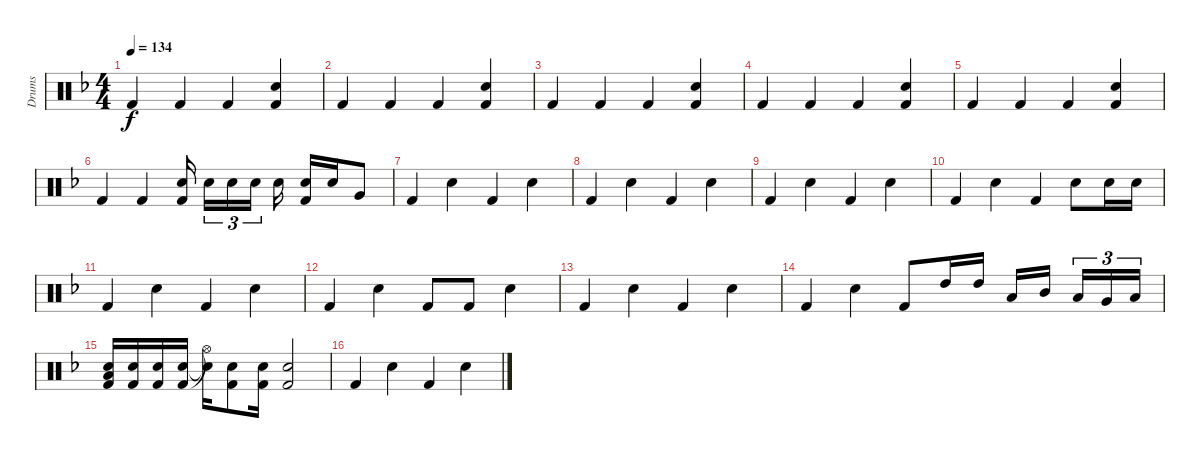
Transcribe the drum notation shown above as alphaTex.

\track ("Drums" "Drums") {instrument percussion}
\staff {score}
\articulation defaults
\ts (4 4)
\tempo 134
\clef neutral
\ks f "Kick (hit) 2".4{dy f} "Kick (hit) 2".4 "Kick (hit) 2".4
("Kick (hit) 2" "Snare (hit) 2").4 |
"Kick (hit) 2".4 "Kick (hit) 2".4 "Kick (hit) 2".4 ("Kick (hit) 2" "Snare (hit) 2").4 |
"Kick (hit) 2".4 "Kick (hit) 2".4 "Kick (hit) 2".4 ("Kick (hit) 2" "Snare (hit) 2").4 |
"Kick (hit) 2".4 "Kick (hit) 2".4 "Kick (hit) 2".4 ("Kick (hit) 2" "Snare (hit) 2").4 |
"Kick (hit) 2".4 "Kick (hit) 2".4 "Kick (hit) 2".4 ("Kick (hit) 2" "Snare (hit) 2").4 |
"Kick (hit) 2".4 "Kick (hit) 2".4 ("Kick (hit) 2" "Snare (hit) 2").16{beam splitsecondary} "Snare (hit) 2".16{tu (3 2)} "Snare (hit) 2".16{tu (3 2)} "Snare (hit) 2".16{tu (3 2) beam splitsecondary} "Snare (hit) 2".16 ("Kick (hit) 2" "Snare (hit) 2").16 "Snare (hit) 2".16 "Very Low Tom (hit)".8 |
"Kick (hit) 2".4 "Snare (hit) 2".4 "Kick (hit) 2".4 "Snare (hit) 2".4 |
"Kick (hit) 2".4 "Snare (hit) 2".4 "Kick (hit) 2".4 "Snare (hit) 2".4 |
"Kick (hit) 2".4 "Snare (hit) 2".4 "Kick (hit) 2".4 "Snare (hit) 2".4 |
"Kick (hit) 2".4 "Snare (hit) 2".4 "Kick (hit) 2".4 "Snare (hit) 2".8 "Snare (hit) 2".16 "Snare (hit) 2".16 |
"Kick (hit) 2".4 "Snare (hit) 2".4 "Kick (hit) 2".4 "Snare (hit) 2".4 |
"Kick (hit) 2".4 "Snare (hit) 2".4 "Kick (hit) 2".8 "Kick (hit) 2".8 "Snare (hit) 2".4 |
"Kick (hit) 2".4 "Snare (hit) 2".4 "Kick (hit) 2".4 "Snare (hit) 2".4 |
"Kick (hit) 2".4 "Snare (hit) 2".4 "Kick (hit) 2".8 "High Tom (hit)".16 "High Tom (hit)".16 "Low Tom (hit)".16 "Mid Tom (hit)".16{beam splitsecondary} "Low Tom (hit)".16{tu (3 2)} "Very Low Tom (hit)".16{tu (3 2)} "Low Floor Tom (hit)".16{tu (3 2)} |
("Snare (hit) 2" "Low Floor Tom (hit)" "Kick (hit) 2").16 ("Snare (hit) 2" "Kick (hit) 2").16 ("Snare (hit) 2" "Kick (hit) 2").16 ("Snare (hit) 2" "Kick (hit) 2").16 ("Snare (hit) 2"{t} "Hi-Hat (open)"{t}).16 ("Snare (hit) 2" "Kick (hit) 2").8 ("Snare (hit) 2" "Kick (hit) 2").16 ("Snare (hit) 2" "Kick (hit) 2").2 |
"Kick (hit) 2".4 "Snare (hit) 2".4 "Kick (hit) 2".4 "Snare (hit) 2".4
